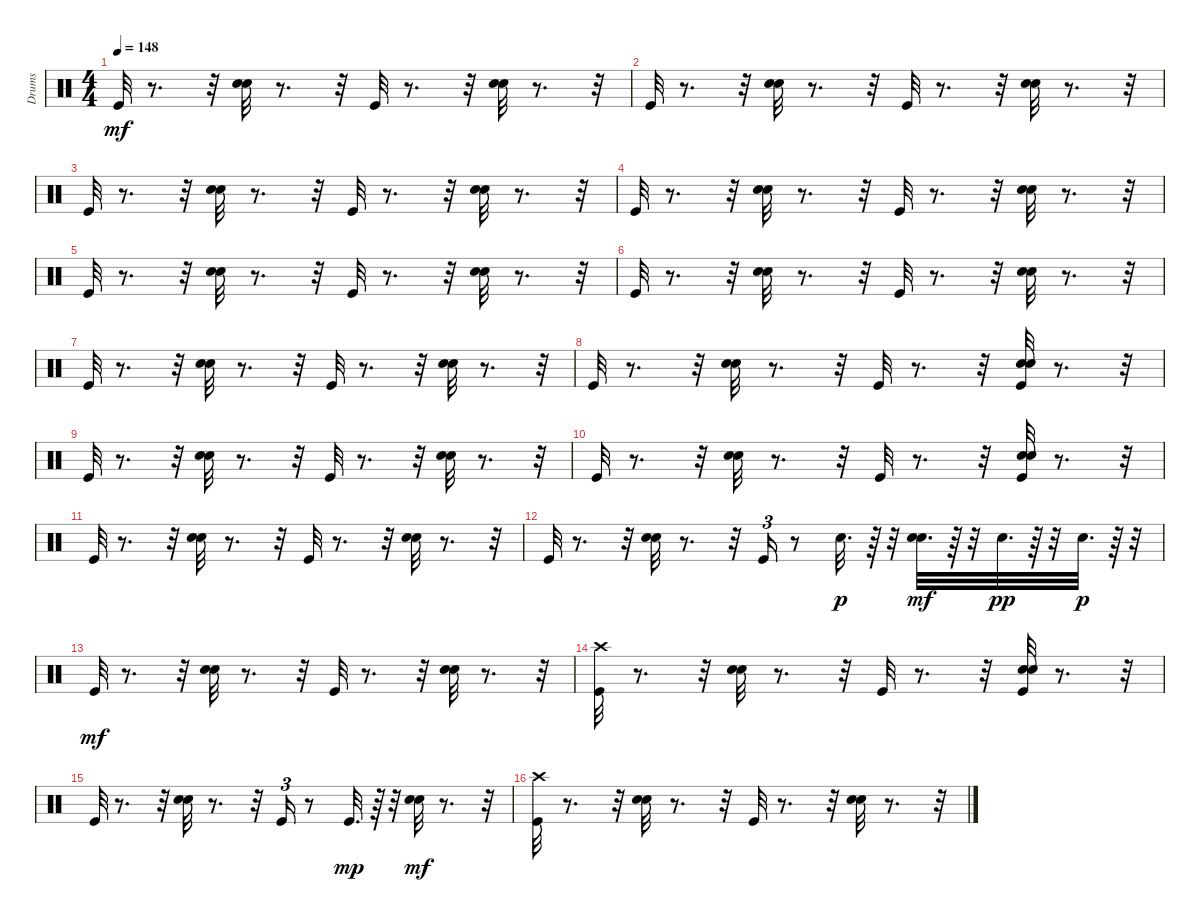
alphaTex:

\track ("Drums" "Drums") {instrument percussion}
\staff {score}
\articulation defaults
\ts (4 4)
\tempo 148
\clef neutral
\ks c "Kick (hit)".32{dy mf}
r.8{d} r.32 ("Hand Clap (hit)" "Electric Snare (hit)").32 r.8{d} r.32 "Kick (hit)".32 r.8{d} r.32 ("Hand Clap (hit)" "Electric Snare (hit)").32 r.8{d} r.32 |
"Kick (hit)".32 r.8{d} r.32 ("Hand Clap (hit)" "Electric Snare (hit)").32 r.8{d} r.32 "Kick (hit)".32 r.8{d} r.32 ("Hand Clap (hit)" "Electric Snare (hit)").32 r.8{d} r.32 |
"Kick (hit)".32 r.8{d} r.32 ("Hand Clap (hit)" "Electric Snare (hit)").32 r.8{d} r.32 "Kick (hit)".32 r.8{d} r.32 ("Hand Clap (hit)" "Electric Snare (hit)").32 r.8{d} r.32 |
"Kick (hit)".32 r.8{d} r.32 ("Hand Clap (hit)" "Electric Snare (hit)").32 r.8{d} r.32 "Kick (hit)".32 r.8{d} r.32 ("Hand Clap (hit)" "Electric Snare (hit)").32 r.8{d} r.32 |
"Kick (hit)".32 r.8{d} r.32 ("Hand Clap (hit)" "Electric Snare (hit)").32 r.8{d} r.32 "Kick (hit)".32 r.8{d} r.32 ("Hand Clap (hit)" "Electric Snare (hit)").32 r.8{d} r.32 |
"Kick (hit)".32 r.8{d} r.32 ("Hand Clap (hit)" "Electric Snare (hit)").32 r.8{d} r.32 "Kick (hit)".32 r.8{d} r.32 ("Hand Clap (hit)" "Electric Snare (hit)").32 r.8{d} r.32 |
"Kick (hit)".32 r.8{d} r.32 ("Hand Clap (hit)" "Electric Snare (hit)").32 r.8{d} r.32 "Kick (hit)".32 r.8{d} r.32 ("Hand Clap (hit)" "Electric Snare (hit)").32 r.8{d} r.32 |
"Kick (hit)".32 r.8{d} r.32 ("Hand Clap (hit)" "Electric Snare (hit)").32 r.8{d} r.32 "Kick (hit)".32 r.8{d} r.32 ("Kick (hit)" "Hand Clap (hit)" "Electric Snare (hit)").32 r.8{d} r.32 |
"Kick (hit)".32 r.8{d} r.32 ("Hand Clap (hit)" "Electric Snare (hit)").32 r.8{d} r.32 "Kick (hit)".32 r.8{d} r.32 ("Hand Clap (hit)" "Electric Snare (hit)").32 r.8{d} r.32 |
"Kick (hit)".32 r.8{d} r.32 ("Hand Clap (hit)" "Electric Snare (hit)").32 r.8{d} r.32 "Kick (hit)".32 r.8{d} r.32 ("Kick (hit)" "Hand Clap (hit)" "Electric Snare (hit)").32 r.8{d} r.32 |
"Kick (hit)".32 r.8{d} r.32 ("Hand Clap (hit)" "Electric Snare (hit)").32 r.8{d} r.32 "Kick (hit)".32 r.8{d} r.32 ("Hand Clap (hit)" "Electric Snare (hit)").32 r.8{d} r.32 |
"Kick (hit)".32 r.8{d} r.32 ("Hand Clap (hit)" "Electric Snare (hit)").32 r.8{d} r.32 "Kick (hit)".16{tu (3 2)} r.8 "Electric Snare (hit)".32{d dy p} r.64 r.32 ("Hand Clap (hit)" "Electric Snare (hit)").32{d dy mf} r.64 r.32 "Electric Snare (hit)".32{d dy pp} r.64 r.32 "Electric Snare (hit)".32{d dy p} r.64 r.32 |
"Kick (hit)".32{dy mf} r.8{d} r.32 ("Hand Clap (hit)" "Electric Snare (hit)").32 r.8{d} r.32 "Kick (hit)".32 r.8{d} r.32 ("Hand Clap (hit)" "Electric Snare (hit)").32 r.8{d} r.32 |
("Kick (hit)" "Crash high (hit)").32 r.8{d} r.32 ("Hand Clap (hit)" "Electric Snare (hit)").32 r.8{d} r.32 "Kick (hit)".32 r.8{d} r.32 ("Kick (hit)" "Hand Clap (hit)" "Electric Snare (hit)").32 r.8{d} r.32 |
"Kick (hit)".32 r.8{d} r.32 ("Hand Clap (hit)" "Electric Snare (hit)").32 r.8{d} r.32 "Kick (hit)".16{tu (3 2)} r.8 "Kick (hit)".32{d dy mp} r.64 r.32 ("Hand Clap (hit)" "Electric Snare (hit)").32{dy mf} r.8{d} r.32 |
("Crash high (hit)" "Kick (hit)").32 r.8{d} r.32 ("Hand Clap (hit)" "Electric Snare (hit)").32 r.8{d} r.32 "Kick (hit)".32 r.8{d} r.32 ("Hand Clap (hit)" "Electric Snare (hit)").32 r.8{d} r.32
